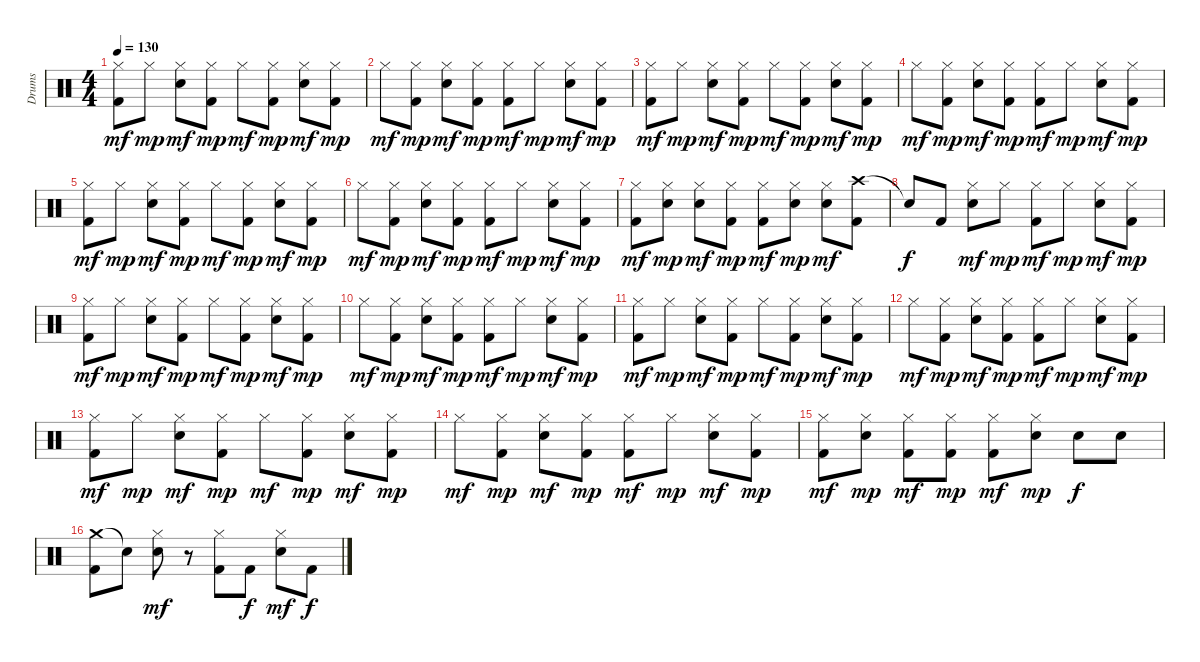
\track ("Drums" "Drums") {instrument percussion}
\staff {score}
\articulation defaults
\ts (4 4)
\tempo 130
\clef neutral
\ks c
("Hi-Hat (closed)" "Kick (hit) 2").8{dy mf} "Hi-Hat (closed)".8{dy mp} ("Hi-Hat (closed)" "Electric Snare (hit)").8{dy mf} ("Hi-Hat (closed)" "Kick (hit) 2").8{dy mp} "Hi-Hat (closed)".8{dy mf} ("Hi-Hat (closed)" "Kick (hit) 2").8{dy mp} ("Hi-Hat (closed)" "Electric Snare (hit)").8{dy mf} ("Hi-Hat (closed)" "Kick (hit) 2").8{dy mp} |
"Hi-Hat (closed)".8{dy mf} ("Hi-Hat (closed)" "Kick (hit) 2").8{dy mp} ("Hi-Hat (closed)" "Electric Snare (hit)").8{dy mf} ("Hi-Hat (closed)" "Kick (hit) 2").8{dy mp} ("Hi-Hat (closed)" "Kick (hit) 2").8{dy mf} "Hi-Hat (closed)".8{dy mp} ("Hi-Hat (closed)" "Electric Snare (hit)").8{dy mf} ("Hi-Hat (closed)" "Kick (hit) 2").8{dy mp} |
("Hi-Hat (closed)" "Kick (hit) 2").8{dy mf} "Hi-Hat (closed)".8{dy mp} ("Hi-Hat (closed)" "Electric Snare (hit)").8{dy mf} ("Hi-Hat (closed)" "Kick (hit) 2").8{dy mp} "Hi-Hat (closed)".8{dy mf} ("Hi-Hat (closed)" "Kick (hit) 2").8{dy mp} ("Hi-Hat (closed)" "Electric Snare (hit)").8{dy mf} ("Hi-Hat (closed)" "Kick (hit) 2").8{dy mp} |
"Hi-Hat (closed)".8{dy mf} ("Hi-Hat (closed)" "Kick (hit) 2").8{dy mp} ("Hi-Hat (closed)" "Electric Snare (hit)").8{dy mf} ("Hi-Hat (closed)" "Kick (hit) 2").8{dy mp} ("Hi-Hat (closed)" "Kick (hit) 2").8{dy mf} "Hi-Hat (closed)".8{dy mp} ("Hi-Hat (closed)" "Electric Snare (hit)").8{dy mf} ("Hi-Hat (closed)" "Kick (hit) 2").8{dy mp} |
("Hi-Hat (closed)" "Kick (hit) 2").8{dy mf} "Hi-Hat (closed)".8{dy mp} ("Hi-Hat (closed)" "Electric Snare (hit)").8{dy mf} ("Hi-Hat (closed)" "Kick (hit) 2").8{dy mp} "Hi-Hat (closed)".8{dy mf} ("Hi-Hat (closed)" "Kick (hit) 2").8{dy mp} ("Hi-Hat (closed)" "Electric Snare (hit)").8{dy mf} ("Hi-Hat (closed)" "Kick (hit) 2").8{dy mp} |
"Hi-Hat (closed)".8{dy mf} ("Hi-Hat (closed)" "Kick (hit) 2").8{dy mp} ("Hi-Hat (closed)" "Electric Snare (hit)").8{dy mf} ("Hi-Hat (closed)" "Kick (hit) 2").8{dy mp} ("Hi-Hat (closed)" "Kick (hit) 2").8{dy mf} "Hi-Hat (closed)".8{dy mp} ("Hi-Hat (closed)" "Electric Snare (hit)").8{dy mf} ("Hi-Hat (closed)" "Kick (hit) 2").8{dy mp} |
("Hi-Hat (closed)" "Kick (hit) 2").8{dy mf} ("Hi-Hat (closed)" "Electric Snare (hit)").8{dy mp} ("Hi-Hat (closed)" "Electric Snare (hit)").8{dy mf} ("Hi-Hat (closed)" "Kick (hit) 2").8{dy mp} ("Hi-Hat (closed)" "Kick (hit) 2").8{dy mf} ("Hi-Hat (closed)" "Electric Snare (hit)").8{dy mp} ("Hi-Hat (closed)" "Electric Snare (hit)").8{dy mf} ("Crash high (hit)" "Kick (hit) 2").8 |
"Snare (hit)"{t}.8{dy f} "Kick (hit) 2".8 ("Hi-Hat (closed)" "Electric Snare (hit)").8{dy mf} "Hi-Hat (closed)".8{dy mp} ("Hi-Hat (closed)" "Kick (hit) 2").8{dy mf} "Hi-Hat (closed)".8{dy mp} ("Hi-Hat (closed)" "Electric Snare (hit)").8{dy mf} ("Hi-Hat (closed)" "Kick (hit) 2").8{dy mp} |
("Hi-Hat (closed)" "Kick (hit) 2").8{dy mf} "Hi-Hat (closed)".8{dy mp} ("Hi-Hat (closed)" "Electric Snare (hit)").8{dy mf} ("Hi-Hat (closed)" "Kick (hit) 2").8{dy mp} "Hi-Hat (closed)".8{dy mf} ("Hi-Hat (closed)" "Kick (hit) 2").8{dy mp} ("Hi-Hat (closed)" "Electric Snare (hit)").8{dy mf} ("Hi-Hat (closed)" "Kick (hit) 2").8{dy mp} |
"Hi-Hat (closed)".8{dy mf} ("Hi-Hat (closed)" "Kick (hit) 2").8{dy mp} ("Hi-Hat (closed)" "Electric Snare (hit)").8{dy mf} ("Hi-Hat (closed)" "Kick (hit) 2").8{dy mp} ("Hi-Hat (closed)" "Kick (hit) 2").8{dy mf} "Hi-Hat (closed)".8{dy mp} ("Hi-Hat (closed)" "Electric Snare (hit)").8{dy mf} ("Hi-Hat (closed)" "Kick (hit) 2").8{dy mp} |
("Hi-Hat (closed)" "Kick (hit) 2").8{dy mf} "Hi-Hat (closed)".8{dy mp} ("Hi-Hat (closed)" "Electric Snare (hit)").8{dy mf} ("Hi-Hat (closed)" "Kick (hit) 2").8{dy mp} "Hi-Hat (closed)".8{dy mf} ("Hi-Hat (closed)" "Kick (hit) 2").8{dy mp} ("Hi-Hat (closed)" "Electric Snare (hit)").8{dy mf} ("Hi-Hat (closed)" "Kick (hit) 2").8{dy mp} |
"Hi-Hat (closed)".8{dy mf} ("Hi-Hat (closed)" "Kick (hit) 2").8{dy mp} ("Hi-Hat (closed)" "Electric Snare (hit)").8{dy mf} ("Hi-Hat (closed)" "Kick (hit) 2").8{dy mp} ("Hi-Hat (closed)" "Kick (hit) 2").8{dy mf} "Hi-Hat (closed)".8{dy mp} ("Hi-Hat (closed)" "Electric Snare (hit)").8{dy mf} ("Hi-Hat (closed)" "Kick (hit) 2").8{dy mp} |
("Hi-Hat (closed)" "Kick (hit) 2").8{dy mf} "Hi-Hat (closed)".8{dy mp} ("Hi-Hat (closed)" "Electric Snare (hit)").8{dy mf} ("Hi-Hat (closed)" "Kick (hit) 2").8{dy mp} "Hi-Hat (closed)".8{dy mf} ("Hi-Hat (closed)" "Kick (hit) 2").8{dy mp} ("Hi-Hat (closed)" "Electric Snare (hit)").8{dy mf} ("Hi-Hat (closed)" "Kick (hit) 2").8{dy mp} |
"Hi-Hat (closed)".8{dy mf} ("Hi-Hat (closed)" "Kick (hit) 2").8{dy mp} ("Hi-Hat (closed)" "Electric Snare (hit)").8{dy mf} ("Hi-Hat (closed)" "Kick (hit) 2").8{dy mp} ("Hi-Hat (closed)" "Kick (hit) 2").8{dy mf} "Hi-Hat (closed)".8{dy mp} ("Hi-Hat (closed)" "Electric Snare (hit)").8{dy mf} ("Hi-Hat (closed)" "Kick (hit) 2").8{dy mp} |
("Hi-Hat (closed)" "Kick (hit) 2").8{dy mf} ("Hi-Hat (closed)" "Electric Snare (hit)").8{dy mp} ("Hi-Hat (closed)" "Kick (hit) 2").8{dy mf} ("Hi-Hat (closed)" "Kick (hit) 2").8{dy mp} ("Hi-Hat (closed)" "Kick (hit) 2").8{dy mf} ("Hi-Hat (closed)" "Electric Snare (hit)").8{dy mp} "Electric Snare (hit)".8{dy f} "Electric Snare (hit)".8 |
("Crash medium (hit)" "Kick (hit) 2").8 "Snare (hit)"{t}.8 ("Hi-Hat (closed)" "Electric Snare (hit)").8{dy mf} r.8 ("Hi-Hat (closed)" "Kick (hit) 2").8 "Kick (hit) 2".8{dy f} ("Hi-Hat (closed)" "Electric Snare (hit)").8{dy mf} "Kick (hit) 2".8{dy f}
